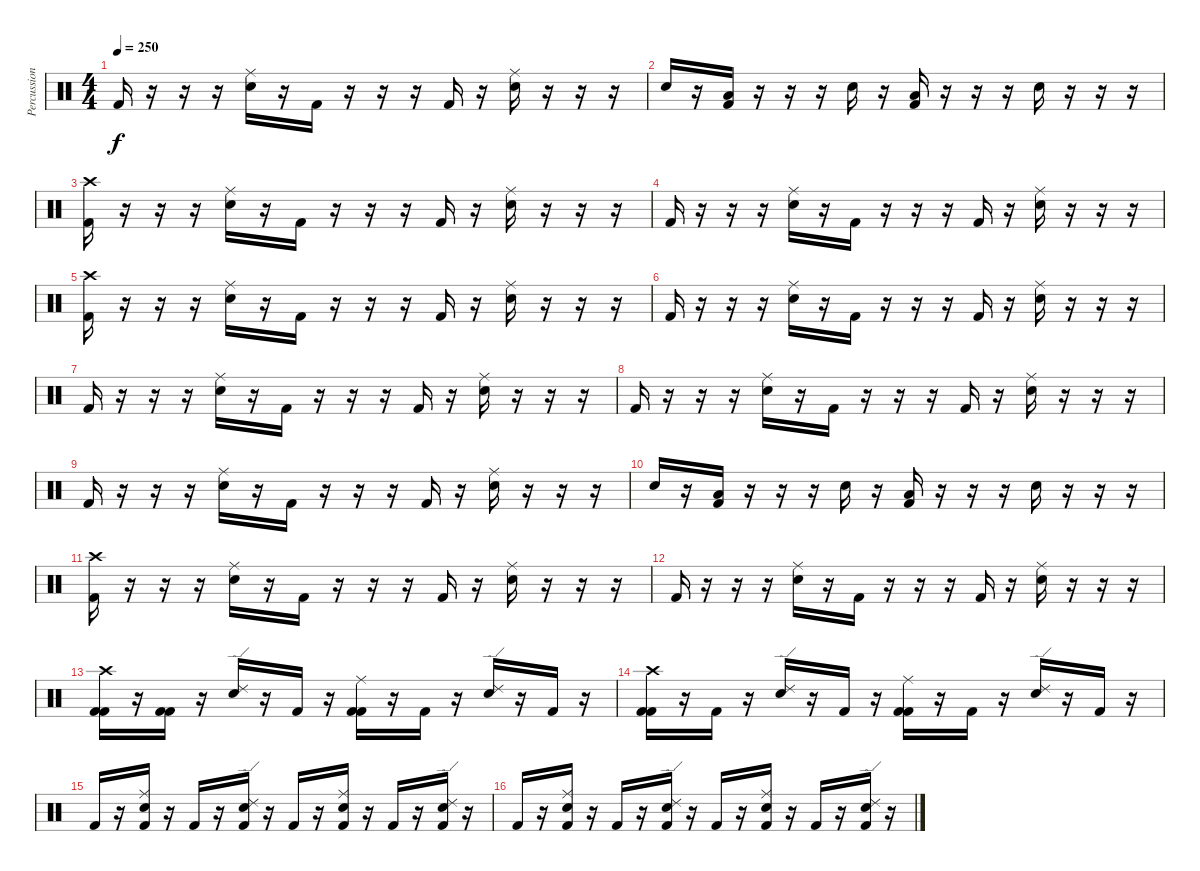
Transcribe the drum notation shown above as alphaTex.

\track ("Percussion" "Percussion") {instrument percussion}
\staff {score}
\articulation defaults
\ts (4 4)
\tempo 250
\clef neutral
\ks c "Kick (hit) 2".16{dy f}
r.16 r.16 r.16 ("Ride (middle)" "Snare (hit) 2").16 r.16 "Kick (hit) 2".16 r.16 r.16 r.16 "Kick (hit) 2".16 r.16 ("Ride (middle)" "Snare (hit) 2").16 r.16 r.16 r.16 |
"Snare (hit) 2".16 r.16 ("Low Tom (hit)" "Kick (hit) 2").16 r.16 r.16 r.16 "Snare (hit) 2".16 r.16 ("Low Tom (hit)" "Kick (hit) 2").16 r.16 r.16 r.16 "Snare (hit) 2".16 r.16 r.16 r.16 |
("Crash high (hit)" "Kick (hit) 2").16 r.16 r.16 r.16 ("Ride (middle)" "Snare (hit) 2").16 r.16 "Kick (hit) 2".16 r.16 r.16 r.16 "Kick (hit) 2".16 r.16 ("Ride (middle)" "Snare (hit) 2").16 r.16 r.16 r.16 |
"Kick (hit) 2".16 r.16 r.16 r.16 ("Ride (middle)" "Snare (hit) 2").16 r.16 "Kick (hit) 2".16 r.16 r.16 r.16 "Kick (hit) 2".16 r.16 ("Ride (middle)" "Snare (hit) 2").16 r.16 r.16 r.16 |
("Crash high (hit)" "Kick (hit) 2").16 r.16 r.16 r.16 ("Ride (middle)" "Snare (hit) 2").16 r.16 "Kick (hit) 2".16 r.16 r.16 r.16 "Kick (hit) 2".16 r.16 ("Ride (middle)" "Snare (hit) 2").16 r.16 r.16 r.16 |
"Kick (hit) 2".16 r.16 r.16 r.16 ("Ride (middle)" "Snare (hit) 2").16 r.16 "Kick (hit) 2".16 r.16 r.16 r.16 "Kick (hit) 2".16 r.16 ("Ride (middle)" "Snare (hit) 2").16 r.16 r.16 r.16 |
"Kick (hit) 2".16 r.16 r.16 r.16 ("Ride (middle)" "Snare (hit) 2").16 r.16 "Kick (hit) 2".16 r.16 r.16 r.16 "Kick (hit) 2".16 r.16 ("Ride (middle)" "Snare (hit) 2").16 r.16 r.16 r.16 |
"Kick (hit) 2".16 r.16 r.16 r.16 ("Ride (middle)" "Snare (hit) 2").16 r.16 "Kick (hit) 2".16 r.16 r.16 r.16 "Kick (hit) 2".16 r.16 ("Ride (middle)" "Snare (hit) 2").16 r.16 r.16 r.16 |
"Kick (hit) 2".16 r.16 r.16 r.16 ("Ride (middle)" "Snare (hit) 2").16 r.16 "Kick (hit) 2".16 r.16 r.16 r.16 "Kick (hit) 2".16 r.16 ("Ride (middle)" "Snare (hit) 2").16 r.16 r.16 r.16 |
"Snare (hit) 2".16 r.16 ("Low Tom (hit)" "Kick (hit) 2").16 r.16 r.16 r.16 "Snare (hit) 2".16 r.16 ("Low Tom (hit)" "Kick (hit) 2").16 r.16 r.16 r.16 "Snare (hit) 2".16 r.16 r.16 r.16 |
("Crash high (hit)" "Kick (hit) 2").16 r.16 r.16 r.16 ("Ride (middle)" "Snare (hit) 2").16 r.16 "Kick (hit) 2".16 r.16 r.16 r.16 "Kick (hit) 2".16 r.16 ("Ride (middle)" "Snare (hit) 2").16 r.16 r.16 r.16 |
"Kick (hit) 2".16 r.16 r.16 r.16 ("Ride (middle)" "Snare (hit) 2").16 r.16 "Kick (hit) 2".16 r.16 r.16 r.16 "Kick (hit) 2".16 r.16 ("Ride (middle)" "Snare (hit) 2").16 r.16 r.16 r.16 |
("Crash high (hit)" "Kick (hit) 2" "Kick (hit) 2").16 r.16 ("Kick (hit) 2" "Kick (hit) 2").16 r.16 ("Ride (edge) 2" "Electric Snare (hit)").16 r.16 "Kick (hit) 2".16 r.16 ("Ride (middle)" "Kick (hit) 2" "Kick (hit) 2").16 r.16 "Kick (hit) 2".16 r.16 ("Ride (edge) 2" "Electric Snare (hit)").16 r.16 "Kick (hit) 2".16 r.16 |
("Crash high (hit)" "Kick (hit) 2" "Kick (hit) 2").16 r.16 "Kick (hit) 2".16 r.16 ("Ride (edge) 2" "Electric Snare (hit)").16 r.16 "Kick (hit) 2".16 r.16 ("Ride (middle)" "Kick (hit) 2" "Kick (hit) 2").16 r.16 "Kick (hit) 2".16 r.16 ("Ride (edge) 2" "Electric Snare (hit)").16 r.16 "Kick (hit) 2".16 r.16 |
"Kick (hit) 2".16 r.16 ("Ride (middle)" "Snare (hit) 2" "Kick (hit) 2").16 r.16 "Kick (hit) 2".16 r.16 ("Ride (edge) 2" "Snare (hit) 2" "Kick (hit) 2").16 r.16 "Kick (hit) 2".16 r.16 ("Ride (middle)" "Snare (hit) 2" "Kick (hit) 2").16 r.16 "Kick (hit) 2".16 r.16 ("Ride (edge) 2" "Snare (hit) 2" "Kick (hit) 2").16 r.16 |
"Kick (hit) 2".16 r.16 ("Ride (middle)" "Snare (hit) 2" "Kick (hit) 2").16 r.16 "Kick (hit) 2".16 r.16 ("Ride (edge) 2" "Snare (hit) 2" "Kick (hit) 2").16 r.16 "Kick (hit) 2".16 r.16 ("Ride (middle)" "Snare (hit) 2" "Kick (hit) 2").16 r.16 "Kick (hit) 2".16 r.16 ("Ride (edge) 2" "Snare (hit) 2" "Kick (hit) 2").16 r.16
